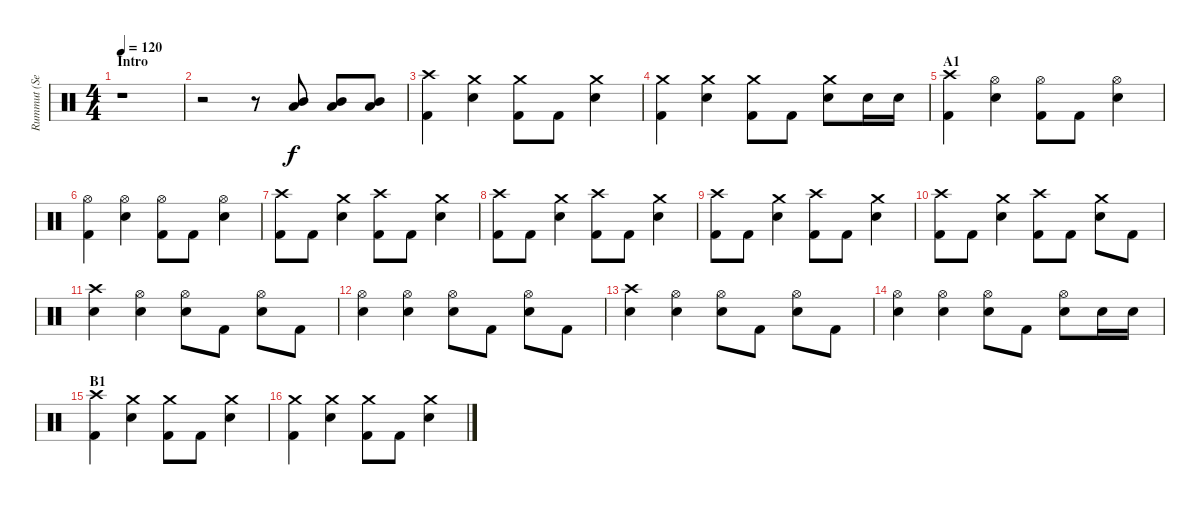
\track ("Rummut (Seppo Pohjolainen)" "Rummut (Se") {instrument percussion}
\staff {score}
\articulation defaults
\ts (4 4)
\section ("" "Intro")
\tempo 120
\clef neutral
\ks c
r.1{dy f} |
r.2 r.8 ("Mid Tom (hit)" "Low Floor Tom (hit)").8 ("Mid Tom (hit)" "Low Floor Tom (hit)").8 ("Mid Tom (hit)" "Low Floor Tom (hit)").8 |
("Crash high (hit)" "Kick (hit) 2").4 ("Crash medium (hit)" "Electric Snare (hit)").4 ("Crash medium (hit)" "Kick (hit) 2").8 "Kick (hit) 2".8 ("Crash medium (hit)" "Electric Snare (hit)").4 |
("Crash medium (hit)" "Kick (hit) 2").4 ("Crash medium (hit)" "Electric Snare (hit)").4 ("Crash medium (hit)" "Kick (hit) 2").8 "Kick (hit) 2".8 ("Crash medium (hit)" "Electric Snare (hit)").8 "Electric Snare (hit)".16 "Electric Snare (hit)".16 |
\section ("" "A1")
("Crash high (hit)" "Kick (hit) 2").4 ("Hi-Hat (open)" "Electric Snare (hit)").4 ("Hi-Hat (open)" "Kick (hit) 2").8 "Kick (hit) 2".8 ("Hi-Hat (open)" "Electric Snare (hit)").4 |
("Hi-Hat (open)" "Kick (hit) 2").4 ("Hi-Hat (open)" "Electric Snare (hit)").4 ("Hi-Hat (open)" "Kick (hit) 2").8 "Kick (hit) 2".8 ("Hi-Hat (open)" "Electric Snare (hit)").4 |
("Crash high (hit)" "Kick (hit) 2").8 "Kick (hit) 2".8 ("Crash medium (hit)" "Electric Snare (hit)").4 ("Crash high (hit)" "Kick (hit) 2").8 "Kick (hit) 2".8 ("Crash medium (hit)" "Electric Snare (hit)").4 |
("Crash high (hit)" "Kick (hit) 2").8 "Kick (hit) 2".8 ("Crash medium (hit)" "Electric Snare (hit)").4 ("Crash high (hit)" "Kick (hit) 2").8 "Kick (hit) 2".8 ("Crash medium (hit)" "Electric Snare (hit)").4 |
("Crash high (hit)" "Kick (hit) 2").8 "Kick (hit) 2".8 ("Crash medium (hit)" "Electric Snare (hit)").4 ("Crash high (hit)" "Kick (hit) 2").8 "Kick (hit) 2".8 ("Crash medium (hit)" "Electric Snare (hit)").4 |
("Crash high (hit)" "Kick (hit) 2").8 "Kick (hit) 2".8 ("Crash medium (hit)" "Electric Snare (hit)").4 ("Crash high (hit)" "Kick (hit) 2").8 "Kick (hit) 2".8 ("Crash medium (hit)" "Electric Snare (hit)").8 "Kick (hit) 2".8 |
("Crash high (hit)" "Electric Snare (hit)").4 ("Hi-Hat (open)" "Electric Snare (hit)").4 ("Hi-Hat (open)" "Electric Snare (hit)").8 "Kick (hit) 2".8 ("Hi-Hat (open)" "Electric Snare (hit)").8 "Kick (hit) 2".8 |
("Hi-Hat (open)" "Electric Snare (hit)").4 ("Hi-Hat (open)" "Electric Snare (hit)").4 ("Hi-Hat (open)" "Electric Snare (hit)").8 "Kick (hit) 2".8 ("Hi-Hat (open)" "Electric Snare (hit)").8 "Kick (hit) 2".8 |
("Crash high (hit)" "Electric Snare (hit)").4 ("Hi-Hat (open)" "Electric Snare (hit)").4 ("Hi-Hat (open)" "Electric Snare (hit)").8 "Kick (hit) 2".8 ("Hi-Hat (open)" "Electric Snare (hit)").8 "Kick (hit) 2".8 |
("Hi-Hat (open)" "Electric Snare (hit)").4 ("Hi-Hat (open)" "Electric Snare (hit)").4 ("Hi-Hat (open)" "Electric Snare (hit)").8 "Kick (hit) 2".8 ("Hi-Hat (open)" "Electric Snare (hit)").8 "Electric Snare (hit)".16 "Electric Snare (hit)".16 |
\section ("" "B1")
("Crash high (hit)" "Kick (hit) 2").4 ("Crash medium (hit)" "Electric Snare (hit)").4 ("Crash medium (hit)" "Kick (hit) 2").8 "Kick (hit) 2".8 ("Crash medium (hit)" "Electric Snare (hit)").4 |
("Crash medium (hit)" "Kick (hit) 2").4 ("Crash medium (hit)" "Electric Snare (hit)").4 ("Crash medium (hit)" "Kick (hit) 2").8 "Kick (hit) 2".8 ("Crash medium (hit)" "Electric Snare (hit)").4
